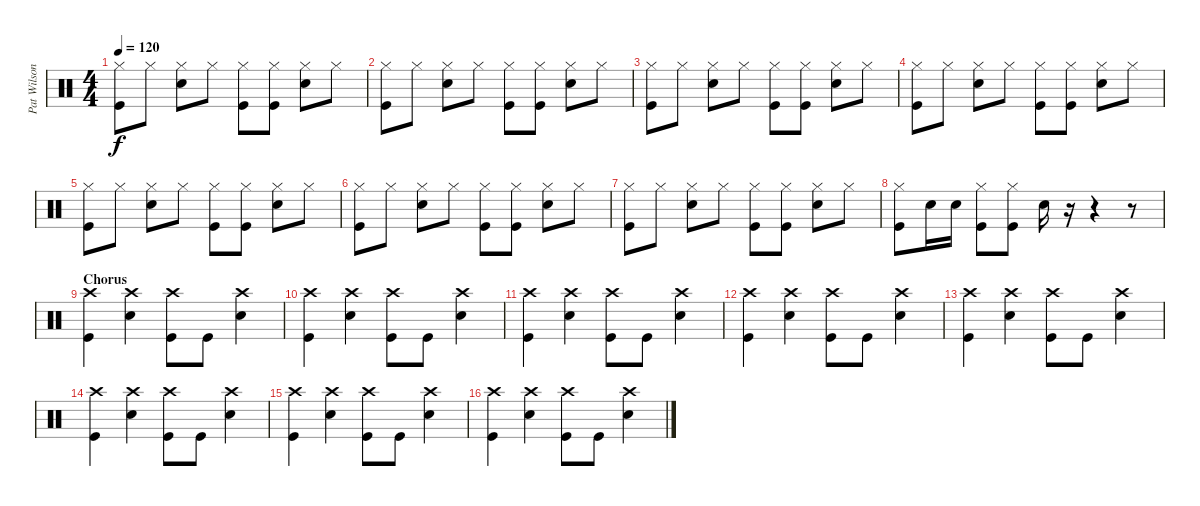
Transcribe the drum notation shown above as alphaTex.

\track ("Pat Wilson" "Pat Wilson") {instrument percussion}
\staff {score}
\articulation defaults
\ts (4 4)
\tempo 120
\clef neutral
\ks c
("Hi-Hat (closed)" "Kick (hit)").8{dy f} "Hi-Hat (closed)".8 ("Snare (hit) 2" "Hi-Hat (closed)").8 "Hi-Hat (closed)".8 ("Hi-Hat (closed)" "Kick (hit)").8 ("Hi-Hat (closed)" "Kick (hit)").8 ("Snare (hit) 2" "Hi-Hat (closed)").8 "Hi-Hat (closed)".8 |
("Hi-Hat (closed)" "Kick (hit)").8 "Hi-Hat (closed)".8 ("Snare (hit) 2" "Hi-Hat (closed)").8 "Hi-Hat (closed)".8 ("Hi-Hat (closed)" "Kick (hit)").8 ("Hi-Hat (closed)" "Kick (hit)").8 ("Snare (hit) 2" "Hi-Hat (closed)").8 "Hi-Hat (closed)".8 |
("Hi-Hat (closed)" "Kick (hit)").8 "Hi-Hat (closed)".8 ("Snare (hit) 2" "Hi-Hat (closed)").8 "Hi-Hat (closed)".8 ("Hi-Hat (closed)" "Kick (hit)").8 ("Hi-Hat (closed)" "Kick (hit)").8 ("Snare (hit) 2" "Hi-Hat (closed)").8 "Hi-Hat (closed)".8 |
("Hi-Hat (closed)" "Kick (hit)").8 "Hi-Hat (closed)".8 ("Snare (hit) 2" "Hi-Hat (closed)").8 "Hi-Hat (closed)".8 ("Hi-Hat (closed)" "Kick (hit)").8 ("Hi-Hat (closed)" "Kick (hit)").8 ("Snare (hit) 2" "Hi-Hat (closed)").8 "Hi-Hat (closed)".8 |
("Hi-Hat (closed)" "Kick (hit)").8 "Hi-Hat (closed)".8 ("Snare (hit) 2" "Hi-Hat (closed)").8 "Hi-Hat (closed)".8 ("Hi-Hat (closed)" "Kick (hit)").8 ("Hi-Hat (closed)" "Kick (hit)").8 ("Snare (hit) 2" "Hi-Hat (closed)").8 "Hi-Hat (closed)".8 |
("Hi-Hat (closed)" "Kick (hit)").8 "Hi-Hat (closed)".8 ("Snare (hit) 2" "Hi-Hat (closed)").8 "Hi-Hat (closed)".8 ("Hi-Hat (closed)" "Kick (hit)").8 ("Hi-Hat (closed)" "Kick (hit)").8 ("Snare (hit) 2" "Hi-Hat (closed)").8 "Hi-Hat (closed)".8 |
("Hi-Hat (closed)" "Kick (hit)").8 "Hi-Hat (closed)".8 ("Snare (hit) 2" "Hi-Hat (closed)").8 "Hi-Hat (closed)".8 ("Hi-Hat (closed)" "Kick (hit)").8 ("Hi-Hat (closed)" "Kick (hit)").8 ("Snare (hit) 2" "Hi-Hat (closed)").8 "Hi-Hat (closed)".8 |
("Hi-Hat (closed)" "Kick (hit)").8 "Snare (hit) 2".16 "Snare (hit) 2".16 ("Hi-Hat (closed)" "Kick (hit)").8 ("Hi-Hat (closed)" "Kick (hit)").8 "Snare (hit) 2".16 r.16 r.4 r.8 |
\section ("" "Chorus")
("Crash high (hit)" "Kick (hit)").4 ("Snare (hit) 2" "Crash high (hit)").4 ("Crash high (hit)" "Kick (hit)").8 "Kick (hit)".8 ("Snare (hit) 2" "Crash high (hit)").4 |
("Crash high (hit)" "Kick (hit)").4 ("Snare (hit) 2" "Crash high (hit)").4 ("Crash high (hit)" "Kick (hit)").8 "Kick (hit)".8 ("Snare (hit) 2" "Crash high (hit)").4 |
("Crash high (hit)" "Kick (hit)").4 ("Snare (hit) 2" "Crash high (hit)").4 ("Crash high (hit)" "Kick (hit)").8 "Kick (hit)".8 ("Snare (hit) 2" "Crash high (hit)").4 |
("Crash high (hit)" "Kick (hit)").4 ("Snare (hit) 2" "Crash high (hit)").4 ("Crash high (hit)" "Kick (hit)").8 "Kick (hit)".8 ("Snare (hit) 2" "Crash high (hit)").4 |
("Crash high (hit)" "Kick (hit)").4 ("Snare (hit) 2" "Crash high (hit)").4 ("Crash high (hit)" "Kick (hit)").8 "Kick (hit)".8 ("Snare (hit) 2" "Crash high (hit)").4 |
("Crash high (hit)" "Kick (hit)").4 ("Snare (hit) 2" "Crash high (hit)").4 ("Crash high (hit)" "Kick (hit)").8 "Kick (hit)".8 ("Snare (hit) 2" "Crash high (hit)").4 |
("Crash high (hit)" "Kick (hit)").4 ("Snare (hit) 2" "Crash high (hit)").4 ("Crash high (hit)" "Kick (hit)").8 "Kick (hit)".8 ("Snare (hit) 2" "Crash high (hit)").4 |
("Crash high (hit)" "Kick (hit)").4 ("Snare (hit) 2" "Crash high (hit)").4 ("Crash high (hit)" "Kick (hit)").8 "Kick (hit)".8 ("Snare (hit) 2" "Crash high (hit)").4
